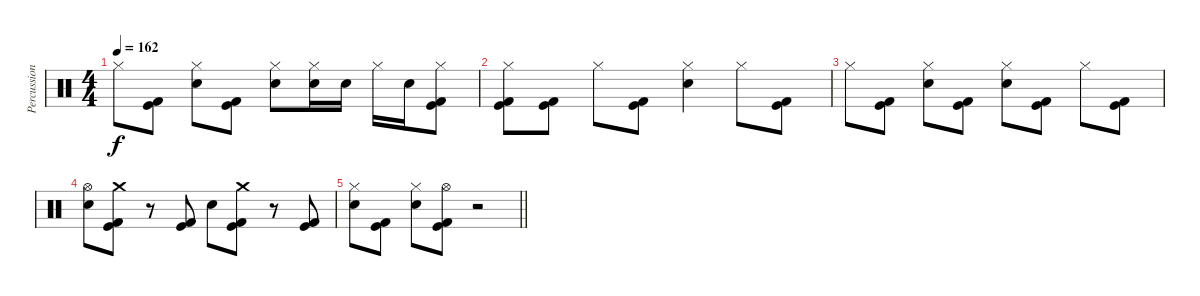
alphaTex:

\track ("Percussion" "Percussion") {instrument percussion}
\staff {score}
\articulation defaults
\ts (4 4)
\tempo 162
\clef neutral
\ks c "Hi-Hat (closed)".8{dy f}
("Kick (hit)" "Kick (hit) 2").8 ("Hi-Hat (closed)" "Electric Snare (hit)").8 ("Kick (hit)" "Kick (hit) 2").8 ("Hi-Hat (closed)" "Electric Snare (hit)").8 ("Hi-Hat (closed)" "Electric Snare (hit)").16 "Electric Snare (hit)".16 "Hi-Hat (closed)".16 "Electric Snare (hit)".16 ("Hi-Hat (closed)" "Kick (hit)" "Kick (hit) 2").8 |
("Hi-Hat (closed)" "Kick (hit)" "Kick (hit) 2").8 ("Kick (hit)" "Kick (hit) 2").8 "Hi-Hat (closed)".8 ("Kick (hit)" "Kick (hit) 2").8 ("Hi-Hat (closed)" "Electric Snare (hit)").4 "Hi-Hat (closed)".8 ("Kick (hit)" "Kick (hit) 2").8 |
"Hi-Hat (closed)".8 ("Kick (hit)" "Kick (hit) 2").8 ("Hi-Hat (closed)" "Electric Snare (hit)").8 ("Kick (hit)" "Kick (hit) 2").8 ("Hi-Hat (closed)" "Electric Snare (hit)").8 ("Kick (hit)" "Kick (hit) 2").8 "Hi-Hat (closed)".8 ("Kick (hit)" "Kick (hit) 2").8 |
("Hi-Hat (open)" "Electric Snare (hit)").8 ("Crash medium (hit)" "Kick (hit)" "Kick (hit) 2").8 r.8 ("Kick (hit)" "Kick (hit) 2").8 "Electric Snare (hit)".8 ("Crash medium (hit)" "Kick (hit)" "Kick (hit) 2").8 r.8 ("Kick (hit)" "Kick (hit) 2").8 |
\barLineRight lightlight
("Hi-Hat (closed)" "Electric Snare (hit)").8 ("Kick (hit)" "Kick (hit) 2").8 ("Hi-Hat (closed)" "Electric Snare (hit)").8 ("Hi-Hat (open)" "Kick (hit)" "Kick (hit) 2").8 r.2
